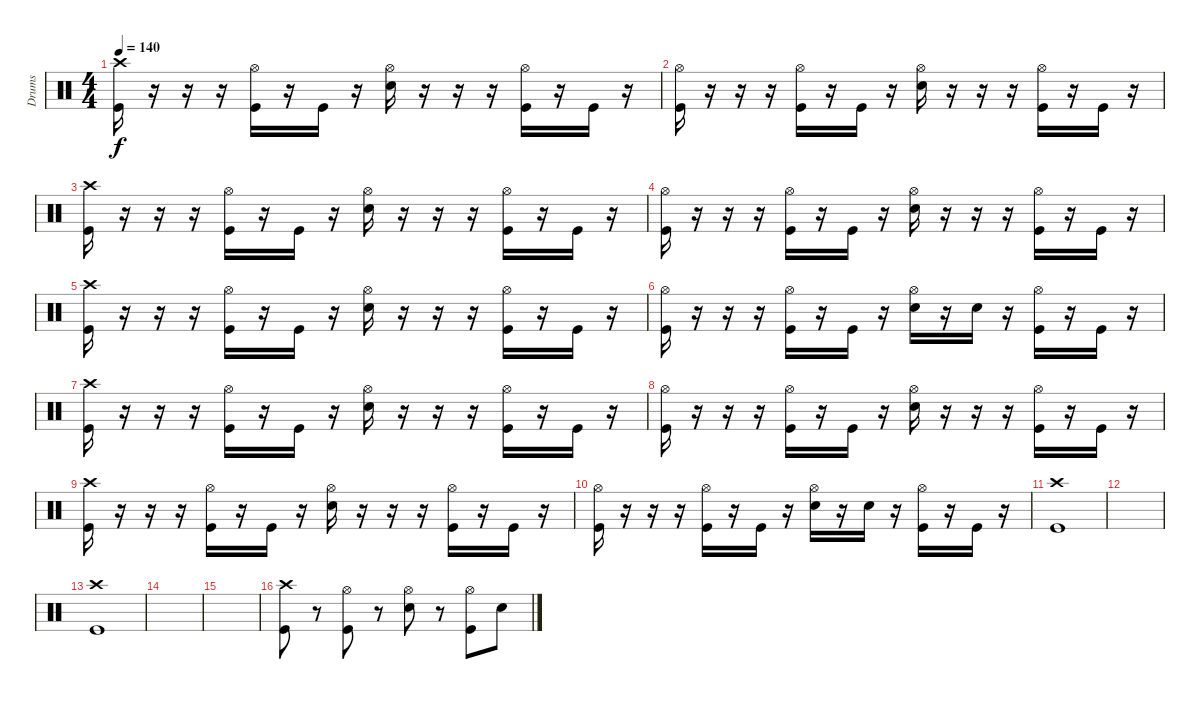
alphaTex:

\track ("Drums" "Drums") {instrument percussion}
\staff {score}
\articulation defaults
\ts (4 4)
\tempo 140
\clef neutral
\ks c
("Crash high (hit)" "Kick (hit)").16{dy f} r.16 r.16 r.16 ("Hi-Hat (open)" "Kick (hit)").16 r.16 "Kick (hit)".16 r.16 ("Hi-Hat (open)" "Snare (hit) 2").16 r.16 r.16 r.16 ("Hi-Hat (open)" "Kick (hit)").16 r.16 "Kick (hit)".16 r.16 |
("Hi-Hat (open)" "Kick (hit)").16 r.16 r.16 r.16 ("Hi-Hat (open)" "Kick (hit)").16 r.16 "Kick (hit)".16 r.16 ("Hi-Hat (open)" "Snare (hit) 2").16 r.16 r.16 r.16 ("Hi-Hat (open)" "Kick (hit)").16 r.16 "Kick (hit)".16 r.16 |
("Crash high (hit)" "Kick (hit)").16 r.16 r.16 r.16 ("Hi-Hat (open)" "Kick (hit)").16 r.16 "Kick (hit)".16 r.16 ("Hi-Hat (open)" "Snare (hit) 2").16 r.16 r.16 r.16 ("Hi-Hat (open)" "Kick (hit)").16 r.16 "Kick (hit)".16 r.16 |
("Hi-Hat (open)" "Kick (hit)").16 r.16 r.16 r.16 ("Hi-Hat (open)" "Kick (hit)").16 r.16 "Kick (hit)".16 r.16 ("Hi-Hat (open)" "Snare (hit) 2").16 r.16 r.16 r.16 ("Hi-Hat (open)" "Kick (hit)").16 r.16 "Kick (hit)".16 r.16 |
("Crash high (hit)" "Kick (hit)").16 r.16 r.16 r.16 ("Hi-Hat (open)" "Kick (hit)").16 r.16 "Kick (hit)".16 r.16 ("Hi-Hat (open)" "Snare (hit) 2").16 r.16 r.16 r.16 ("Hi-Hat (open)" "Kick (hit)").16 r.16 "Kick (hit)".16 r.16 |
("Hi-Hat (open)" "Kick (hit)").16 r.16 r.16 r.16 ("Hi-Hat (open)" "Kick (hit)").16 r.16 "Kick (hit)".16 r.16 ("Hi-Hat (open)" "Snare (hit) 2").16 r.16 "Snare (hit) 2".16 r.16 ("Hi-Hat (open)" "Kick (hit)").16 r.16 "Kick (hit)".16 r.16 |
("Crash high (hit)" "Kick (hit)").16 r.16 r.16 r.16 ("Hi-Hat (open)" "Kick (hit)").16 r.16 "Kick (hit)".16 r.16 ("Hi-Hat (open)" "Snare (hit) 2").16 r.16 r.16 r.16 ("Hi-Hat (open)" "Kick (hit)").16 r.16 "Kick (hit)".16 r.16 |
("Hi-Hat (open)" "Kick (hit)").16 r.16 r.16 r.16 ("Hi-Hat (open)" "Kick (hit)").16 r.16 "Kick (hit)".16 r.16 ("Hi-Hat (open)" "Snare (hit) 2").16 r.16 r.16 r.16 ("Hi-Hat (open)" "Kick (hit)").16 r.16 "Kick (hit)".16 r.16 |
("Crash high (hit)" "Kick (hit)").16 r.16 r.16 r.16 ("Hi-Hat (open)" "Kick (hit)").16 r.16 "Kick (hit)".16 r.16 ("Hi-Hat (open)" "Snare (hit) 2").16 r.16 r.16 r.16 ("Hi-Hat (open)" "Kick (hit)").16 r.16 "Kick (hit)".16 r.16 |
("Hi-Hat (open)" "Kick (hit)").16 r.16 r.16 r.16 ("Hi-Hat (open)" "Kick (hit)").16 r.16 "Kick (hit)".16 r.16 ("Hi-Hat (open)" "Snare (hit) 2").16 r.16 "Snare (hit) 2".16 r.16 ("Hi-Hat (open)" "Kick (hit)").16 r.16 "Kick (hit)".16 r.16 |
("Crash high (hit)" "Kick (hit)").1 |
|
("Crash high (hit)" "Kick (hit)").1 |
|
|
("Crash high (hit)" "Kick (hit)").8 r.8 ("Hi-Hat (open)" "Kick (hit)").8 r.8 ("Hi-Hat (open)" "Snare (hit) 2").8 r.8 ("Hi-Hat (open)" "Kick (hit)").8 "Snare (hit) 2".8
